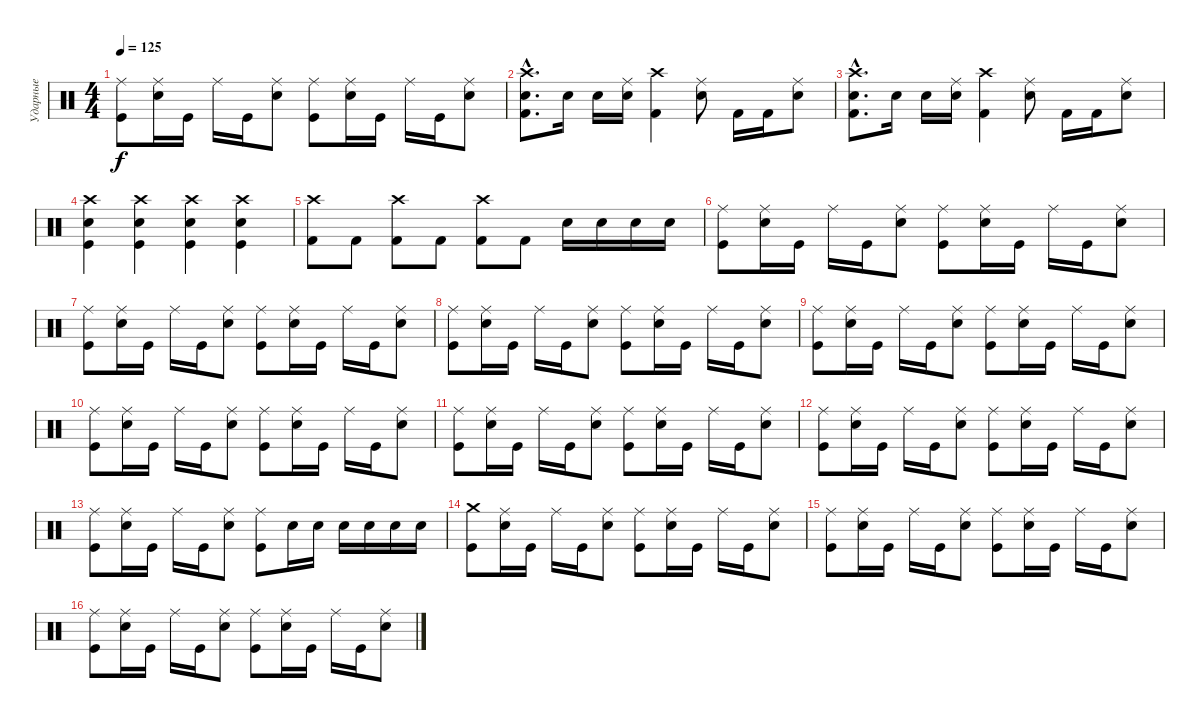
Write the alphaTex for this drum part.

\track ("Ударные" "Ударные") {instrument percussion}
\staff {score}
\articulation defaults
\ts (4 4)
\tempo 125
\clef neutral
\ks c
("Ride (middle)" "Kick (hit)").8{dy f} ("Ride (middle)" "Electric Snare (hit)").16 "Kick (hit)".16 "Ride (middle)".16 "Kick (hit)".16 ("Ride (middle)" "Electric Snare (hit)").8 ("Ride (middle)" "Kick (hit)").8 ("Ride (middle)" "Electric Snare (hit)").16 "Kick (hit)".16 "Ride (middle)".16 "Kick (hit)".16 ("Ride (middle)" "Electric Snare (hit)").8 |
("Electric Snare (hit)"{hac} "Kick (hit) 2"{hac} "Crash high (hit)"{hac}).8{d} "Electric Snare (hit)".16 "Electric Snare (hit)".16 ("Electric Snare (hit)" "Ride (middle)").16 ("Kick (hit) 2" "Crash high (hit)").4 ("Electric Snare (hit)" "Ride (middle)").8 "Kick (hit) 2".16 "Kick (hit) 2".16 ("Electric Snare (hit)" "Ride (middle)").8 |
("Electric Snare (hit)"{hac} "Kick (hit) 2"{hac} "Crash high (hit)"{hac}).8{d} "Electric Snare (hit)".16 "Electric Snare (hit)".16 ("Electric Snare (hit)" "Ride (middle)").16 ("Kick (hit) 2" "Crash high (hit)").4 ("Electric Snare (hit)" "Ride (middle)").8 "Kick (hit) 2".16 "Kick (hit) 2".16 ("Electric Snare (hit)" "Ride (middle)").8 |
("Crash high (hit)" "Kick (hit)" "Electric Snare (hit)").4 ("Crash high (hit)" "Kick (hit)" "Electric Snare (hit)").4 ("Crash high (hit)" "Kick (hit)" "Electric Snare (hit)").4 ("Crash high (hit)" "Kick (hit)" "Electric Snare (hit)").4 |
("Kick (hit) 2" "Crash high (hit)").8 "Kick (hit) 2".8 ("Kick (hit) 2" "Crash high (hit)").8 "Kick (hit) 2".8 ("Kick (hit) 2" "Crash high (hit)").8 "Kick (hit) 2".8 "Electric Snare (hit)".16 "Electric Snare (hit)".16 "Electric Snare (hit)".16 "Electric Snare (hit)".16 |
("Ride (middle)" "Kick (hit)").8 ("Ride (middle)" "Electric Snare (hit)").16 "Kick (hit)".16 "Ride (middle)".16 "Kick (hit)".16 ("Ride (middle)" "Electric Snare (hit)").8 ("Ride (middle)" "Kick (hit)").8 ("Ride (middle)" "Electric Snare (hit)").16 "Kick (hit)".16 "Ride (middle)".16 "Kick (hit)".16 ("Ride (middle)" "Electric Snare (hit)").8 |
("Ride (middle)" "Kick (hit)").8 ("Ride (middle)" "Electric Snare (hit)").16 "Kick (hit)".16 "Ride (middle)".16 "Kick (hit)".16 ("Ride (middle)" "Electric Snare (hit)").8 ("Ride (middle)" "Kick (hit)").8 ("Ride (middle)" "Electric Snare (hit)").16 "Kick (hit)".16 "Ride (middle)".16 "Kick (hit)".16 ("Ride (middle)" "Electric Snare (hit)").8 |
("Ride (middle)" "Kick (hit)").8 ("Ride (middle)" "Electric Snare (hit)").16 "Kick (hit)".16 "Ride (middle)".16 "Kick (hit)".16 ("Ride (middle)" "Electric Snare (hit)").8 ("Ride (middle)" "Kick (hit)").8 ("Ride (middle)" "Electric Snare (hit)").16 "Kick (hit)".16 "Ride (middle)".16 "Kick (hit)".16 ("Ride (middle)" "Electric Snare (hit)").8 |
("Ride (middle)" "Kick (hit)").8 ("Ride (middle)" "Electric Snare (hit)").16 "Kick (hit)".16 "Ride (middle)".16 "Kick (hit)".16 ("Ride (middle)" "Electric Snare (hit)").8 ("Ride (middle)" "Kick (hit)").8 ("Ride (middle)" "Electric Snare (hit)").16 "Kick (hit)".16 "Ride (middle)".16 "Kick (hit)".16 ("Ride (middle)" "Electric Snare (hit)").8 |
("Ride (middle)" "Kick (hit)").8 ("Ride (middle)" "Electric Snare (hit)").16 "Kick (hit)".16 "Ride (middle)".16 "Kick (hit)".16 ("Ride (middle)" "Electric Snare (hit)").8 ("Ride (middle)" "Kick (hit)").8 ("Ride (middle)" "Electric Snare (hit)").16 "Kick (hit)".16 "Ride (middle)".16 "Kick (hit)".16 ("Ride (middle)" "Electric Snare (hit)").8 |
("Ride (middle)" "Kick (hit)").8 ("Ride (middle)" "Electric Snare (hit)").16 "Kick (hit)".16 "Ride (middle)".16 "Kick (hit)".16 ("Ride (middle)" "Electric Snare (hit)").8 ("Ride (middle)" "Kick (hit)").8 ("Ride (middle)" "Electric Snare (hit)").16 "Kick (hit)".16 "Ride (middle)".16 "Kick (hit)".16 ("Ride (middle)" "Electric Snare (hit)").8 |
("Ride (middle)" "Kick (hit)").8 ("Ride (middle)" "Electric Snare (hit)").16 "Kick (hit)".16 "Ride (middle)".16 "Kick (hit)".16 ("Ride (middle)" "Electric Snare (hit)").8 ("Ride (middle)" "Kick (hit)").8 ("Ride (middle)" "Electric Snare (hit)").16 "Kick (hit)".16 "Ride (middle)".16 "Kick (hit)".16 ("Ride (middle)" "Electric Snare (hit)").8 |
("Ride (middle)" "Kick (hit)").8 ("Ride (middle)" "Electric Snare (hit)").16 "Kick (hit)".16 "Ride (middle)".16 "Kick (hit)".16 ("Ride (middle)" "Electric Snare (hit)").8 ("Ride (middle)" "Kick (hit)").8 "Electric Snare (hit)".16 "Electric Snare (hit)".16 "Electric Snare (hit)".16 "Electric Snare (hit)".16 "Electric Snare (hit)".16 "Electric Snare (hit)".16 |
("Crash medium (hit)" "Kick (hit)").8 ("Ride (middle)" "Electric Snare (hit)").16 "Kick (hit)".16 "Ride (middle)".16 "Kick (hit)".16 ("Ride (middle)" "Electric Snare (hit)").8 ("Ride (middle)" "Kick (hit)").8 ("Ride (middle)" "Electric Snare (hit)").16 "Kick (hit)".16 "Ride (middle)".16 "Kick (hit)".16 ("Ride (middle)" "Electric Snare (hit)").8 |
("Ride (middle)" "Kick (hit)").8 ("Ride (middle)" "Electric Snare (hit)").16 "Kick (hit)".16 "Ride (middle)".16 "Kick (hit)".16 ("Ride (middle)" "Electric Snare (hit)").8 ("Ride (middle)" "Kick (hit)").8 ("Ride (middle)" "Electric Snare (hit)").16 "Kick (hit)".16 "Ride (middle)".16 "Kick (hit)".16 ("Ride (middle)" "Electric Snare (hit)").8 |
("Ride (middle)" "Kick (hit)").8 ("Ride (middle)" "Electric Snare (hit)").16 "Kick (hit)".16 "Ride (middle)".16 "Kick (hit)".16 ("Ride (middle)" "Electric Snare (hit)").8 ("Ride (middle)" "Kick (hit)").8 ("Ride (middle)" "Electric Snare (hit)").16 "Kick (hit)".16 "Ride (middle)".16 "Kick (hit)".16 ("Ride (middle)" "Electric Snare (hit)").8
